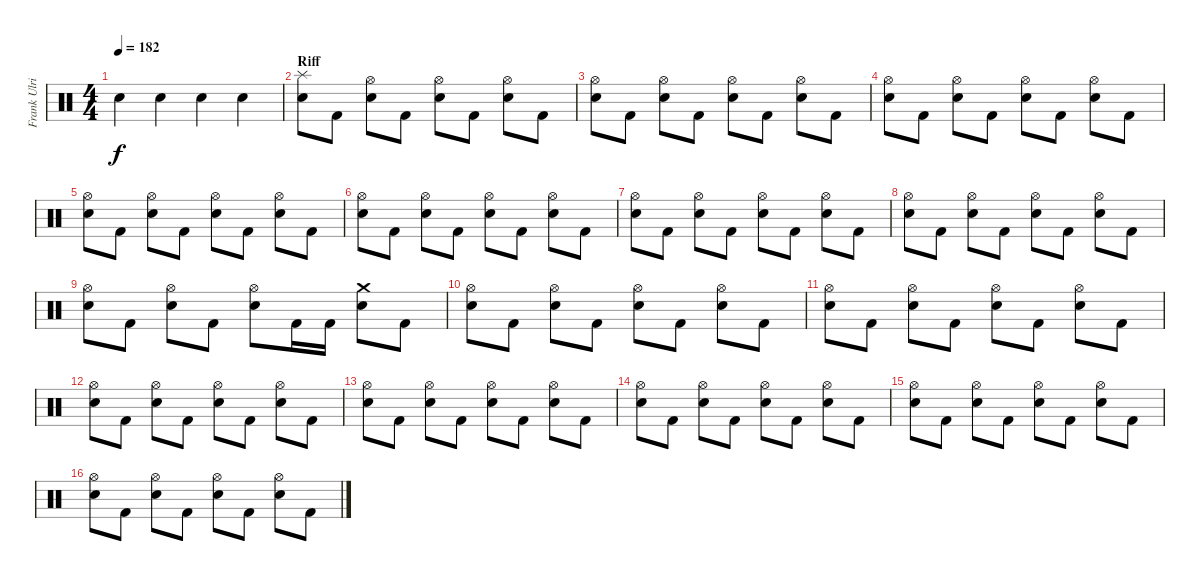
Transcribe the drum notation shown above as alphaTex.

\track ("Frank Ulrich" "Frank Ulri") {instrument percussion}
\staff {score}
\articulation defaults
\ts (4 4)
\tempo 182
\clef neutral
\ks c "Snare (hit) 2".4{dy f} "Snare (hit) 2".4 "Snare (hit) 2".4 "Snare (hit) 2".4
|
\section ("" "Riff")
("Splash (hit)" "Snare (hit) 2").8 "Kick (hit) 2".8 ("Hi-Hat (open)" "Snare (hit) 2").8 "Kick (hit) 2".8 ("Hi-Hat (open)" "Snare (hit) 2").8 "Kick (hit) 2".8 ("Hi-Hat (open)" "Snare (hit) 2").8 "Kick (hit) 2".8 |
("Hi-Hat (open)" "Snare (hit) 2").8 "Kick (hit) 2".8 ("Hi-Hat (open)" "Snare (hit) 2").8 "Kick (hit) 2".8 ("Hi-Hat (open)" "Snare (hit) 2").8 "Kick (hit) 2".8 ("Hi-Hat (open)" "Snare (hit) 2").8 "Kick (hit) 2".8 |
("Hi-Hat (open)" "Snare (hit) 2").8 "Kick (hit) 2".8 ("Hi-Hat (open)" "Snare (hit) 2").8 "Kick (hit) 2".8 ("Hi-Hat (open)" "Snare (hit) 2").8 "Kick (hit) 2".8 ("Hi-Hat (open)" "Snare (hit) 2").8 "Kick (hit) 2".8 |
("Hi-Hat (open)" "Snare (hit) 2").8 "Kick (hit) 2".8 ("Hi-Hat (open)" "Snare (hit) 2").8 "Kick (hit) 2".8 ("Hi-Hat (open)" "Snare (hit) 2").8 "Kick (hit) 2".8 ("Hi-Hat (open)" "Snare (hit) 2").8 "Kick (hit) 2".8 |
("Hi-Hat (open)" "Snare (hit) 2").8 "Kick (hit) 2".8 ("Hi-Hat (open)" "Snare (hit) 2").8 "Kick (hit) 2".8 ("Hi-Hat (open)" "Snare (hit) 2").8 "Kick (hit) 2".8 ("Hi-Hat (open)" "Snare (hit) 2").8 "Kick (hit) 2".8 |
("Hi-Hat (open)" "Snare (hit) 2").8 "Kick (hit) 2".8 ("Hi-Hat (open)" "Snare (hit) 2").8 "Kick (hit) 2".8 ("Hi-Hat (open)" "Snare (hit) 2").8 "Kick (hit) 2".8 ("Hi-Hat (open)" "Snare (hit) 2").8 "Kick (hit) 2".8 |
("Hi-Hat (open)" "Snare (hit) 2").8 "Kick (hit) 2".8 ("Hi-Hat (open)" "Snare (hit) 2").8 "Kick (hit) 2".8 ("Hi-Hat (open)" "Snare (hit) 2").8 "Kick (hit) 2".8 ("Hi-Hat (open)" "Snare (hit) 2").8 "Kick (hit) 2".8 |
("Hi-Hat (open)" "Snare (hit) 2").8 "Kick (hit) 2".8 ("Hi-Hat (open)" "Snare (hit) 2").8 "Kick (hit) 2".8 ("Hi-Hat (open)" "Snare (hit) 2").8 "Kick (hit) 2".16 "Kick (hit) 2".16 ("Crash medium (hit)" "Snare (hit) 2").8 "Kick (hit) 2".8 |
("Hi-Hat (open)" "Snare (hit) 2").8 "Kick (hit) 2".8 ("Hi-Hat (open)" "Snare (hit) 2").8 "Kick (hit) 2".8 ("Hi-Hat (open)" "Snare (hit) 2").8 "Kick (hit) 2".8 ("Hi-Hat (open)" "Snare (hit) 2").8 "Kick (hit) 2".8 |
("Hi-Hat (open)" "Snare (hit) 2").8 "Kick (hit) 2".8 ("Hi-Hat (open)" "Snare (hit) 2").8 "Kick (hit) 2".8 ("Hi-Hat (open)" "Snare (hit) 2").8 "Kick (hit) 2".8 ("Hi-Hat (open)" "Snare (hit) 2").8 "Kick (hit) 2".8 |
("Hi-Hat (open)" "Snare (hit) 2").8 "Kick (hit) 2".8 ("Hi-Hat (open)" "Snare (hit) 2").8 "Kick (hit) 2".8 ("Hi-Hat (open)" "Snare (hit) 2").8 "Kick (hit) 2".8 ("Hi-Hat (open)" "Snare (hit) 2").8 "Kick (hit) 2".8 |
("Hi-Hat (open)" "Snare (hit) 2").8 "Kick (hit) 2".8 ("Hi-Hat (open)" "Snare (hit) 2").8 "Kick (hit) 2".8 ("Hi-Hat (open)" "Snare (hit) 2").8 "Kick (hit) 2".8 ("Hi-Hat (open)" "Snare (hit) 2").8 "Kick (hit) 2".8 |
("Hi-Hat (open)" "Snare (hit) 2").8 "Kick (hit) 2".8 ("Hi-Hat (open)" "Snare (hit) 2").8 "Kick (hit) 2".8 ("Hi-Hat (open)" "Snare (hit) 2").8 "Kick (hit) 2".8 ("Hi-Hat (open)" "Snare (hit) 2").8 "Kick (hit) 2".8 |
("Hi-Hat (open)" "Snare (hit) 2").8 "Kick (hit) 2".8 ("Hi-Hat (open)" "Snare (hit) 2").8 "Kick (hit) 2".8 ("Hi-Hat (open)" "Snare (hit) 2").8 "Kick (hit) 2".8 ("Hi-Hat (open)" "Snare (hit) 2").8 "Kick (hit) 2".8 |
("Hi-Hat (open)" "Snare (hit) 2").8 "Kick (hit) 2".8 ("Hi-Hat (open)" "Snare (hit) 2").8 "Kick (hit) 2".8 ("Hi-Hat (open)" "Snare (hit) 2").8 "Kick (hit) 2".8 ("Hi-Hat (open)" "Snare (hit) 2").8 "Kick (hit) 2".8
